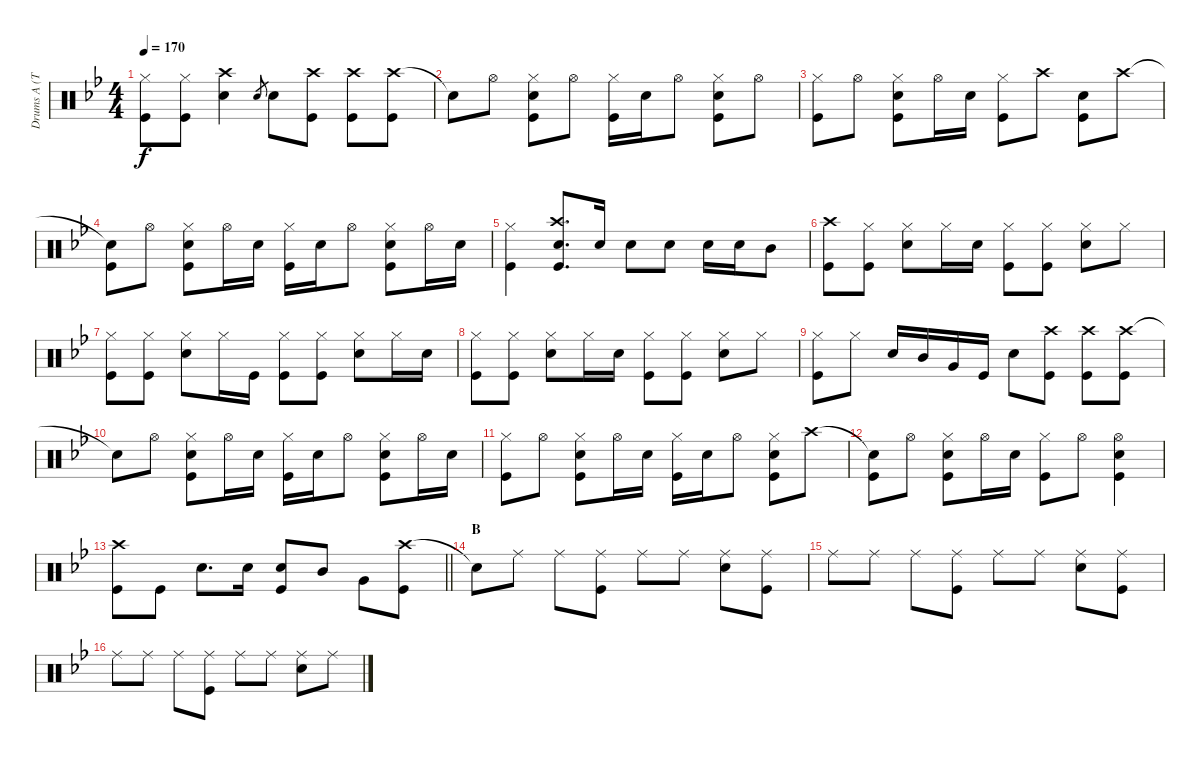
\track ("Drums A (Tainaka Ritsu)" "Drums A (T") {instrument percussion}
\staff {score}
\articulation defaults
\ts (4 4)
\tempo 170
\clef neutral
\ks bb
("Hi-Hat (closed)" "Kick (hit)").8{dy f} ("Hi-Hat (closed)" "Kick (hit)").8 ("Crash high (hit)" "Snare (hit) 2").4 "Snare (hit) 2".8{gr} "Snare (hit) 2".8 ("Crash high (hit)" "Kick (hit)").8 ("Crash high (hit)" "Kick (hit)").8 ("Crash high (hit)" "Kick (hit)").8 |
"Snare (hit)"{t}.8 "Hi-Hat (open)".8 ("Hi-Hat (closed)" "Snare (hit) 2" "Kick (hit)").8 "Hi-Hat (open)".8 ("Hi-Hat (closed)" "Kick (hit)").16 "Snare (hit) 2".16 "Hi-Hat (open)".8 ("Hi-Hat (closed)" "Snare (hit) 2" "Kick (hit)").8 "Hi-Hat (open)".8 |
("Hi-Hat (closed)" "Kick (hit)").8 "Hi-Hat (open)".8 ("Hi-Hat (closed)" "Snare (hit) 2" "Kick (hit)").8 "Hi-Hat (open)".16 "Snare (hit) 2".16 ("Hi-Hat (closed)" "Kick (hit)").8 "Crash high (hit)".8 ("Snare (hit) 2" "Kick (hit)").8 "Crash high (hit)".8 |
("Snare (hit)"{t} "Kick (hit)").8 "Hi-Hat (open)".8 ("Hi-Hat (closed)" "Snare (hit) 2" "Kick (hit)").8 "Hi-Hat (open)".16 "Snare (hit) 2".16 ("Hi-Hat (closed)" "Kick (hit)").16 "Snare (hit) 2".16 "Hi-Hat (open)".8 ("Hi-Hat (closed)" "Snare (hit) 2" "Kick (hit)").8 "Hi-Hat (open)".16 "Snare (hit) 2".16 |
("Hi-Hat (closed)" "Kick (hit)").4 ("Crash high (hit)" "Snare (hit) 2" "Kick (hit)").8{d} "Snare (hit) 2".16 "Snare (hit) 2".8 "Snare (hit) 2".8 "Snare (hit) 2".16 "Snare (hit) 2".16 "Mid Tom (hit)".8 |
("Crash high (hit)" "Kick (hit)").8 ("Hi-Hat (closed)" "Kick (hit)").8 ("Hi-Hat (closed)" "Snare (hit) 2").8 "Hi-Hat (closed)".16 "Snare (hit) 2".16 ("Hi-Hat (closed)" "Kick (hit)").8 ("Hi-Hat (closed)" "Kick (hit)").8 ("Hi-Hat (closed)" "Snare (hit) 2").8 "Hi-Hat (closed)".8 |
("Hi-Hat (closed)" "Kick (hit)").8 ("Hi-Hat (closed)" "Kick (hit)").8 ("Hi-Hat (closed)" "Snare (hit) 2").8 "Hi-Hat (closed)".16 "Kick (hit)".16 ("Hi-Hat (closed)" "Kick (hit)").8 ("Hi-Hat (closed)" "Kick (hit)").8 ("Hi-Hat (closed)" "Snare (hit) 2").8 "Hi-Hat (closed)".16 "Snare (hit) 2".16 |
("Hi-Hat (closed)" "Kick (hit)").8 ("Hi-Hat (closed)" "Kick (hit)").8 ("Hi-Hat (closed)" "Snare (hit) 2").8 "Hi-Hat (closed)".16 "Snare (hit) 2".16 ("Hi-Hat (closed)" "Kick (hit)").8 ("Hi-Hat (closed)" "Kick (hit)").8 ("Hi-Hat (closed)" "Snare (hit) 2").8 "Hi-Hat (closed)".8 |
("Hi-Hat (closed)" "Kick (hit)").8 "Hi-Hat (closed)".8 "Snare (hit) 2".16 "Mid Tom (hit)".16 "Very Low Tom (hit)".16 "Kick (hit)".16 "Snare (hit) 2".8 ("Crash high (hit)" "Kick (hit)").8 ("Crash high (hit)" "Kick (hit)").8 ("Crash high (hit)" "Kick (hit)").8 |
"Snare (hit)"{t}.8 "Hi-Hat (open)".8 ("Hi-Hat (closed)" "Snare (hit) 2" "Kick (hit)").8 "Hi-Hat (open)".16 "Snare (hit) 2".16 ("Hi-Hat (closed)" "Kick (hit)").16 "Snare (hit) 2".16 "Hi-Hat (open)".8 ("Hi-Hat (closed)" "Snare (hit) 2" "Kick (hit)").8 "Hi-Hat (open)".16 "Snare (hit) 2".16 |
("Hi-Hat (closed)" "Kick (hit)").8 "Hi-Hat (open)".8 ("Hi-Hat (closed)" "Snare (hit) 2" "Kick (hit)").8 "Hi-Hat (open)".16 "Snare (hit) 2".16 ("Hi-Hat (closed)" "Kick (hit)").16 "Snare (hit) 2".16 "Hi-Hat (open)".8 ("Hi-Hat (closed)" "Snare (hit) 2" "Kick (hit)").8 "Crash high (hit)".8 |
("Snare (hit)"{t} "Kick (hit)").8 "Hi-Hat (open)".8 ("Hi-Hat (closed)" "Snare (hit) 2" "Kick (hit)").8 "Hi-Hat (open)".16 "Snare (hit) 2".16 ("Hi-Hat (closed)" "Kick (hit)").8 "Hi-Hat (open)".8 ("Hi-Hat (open)" "Snare (hit) 2" "Kick (hit)").4 |
\barLineRight lightlight
("Crash high (hit)" "Kick (hit)").8 "Kick (hit)".8 "Snare (hit) 2".8{d} "Snare (hit) 2".16 ("Snare (hit) 2" "Kick (hit)").8 "Mid Tom (hit)".8 "Very Low Tom (hit)".8 ("Crash high (hit)" "Kick (hit)").8 |
\section ("" "B")
"Snare (hit)"{t}.8 "Ride (middle)".8 "Ride (middle)".8 ("Ride (middle)" "Kick (hit)").8 "Ride (middle)".8 "Ride (middle)".8 ("Ride (middle)" "Snare (hit) 2").8 ("Ride (middle)" "Kick (hit)").8 |
"Ride (middle)".8 "Ride (middle)".8 "Ride (middle)".8 ("Ride (middle)" "Kick (hit)").8 "Ride (middle)".8 "Ride (middle)".8 ("Ride (middle)" "Snare (hit) 2").8 ("Ride (middle)" "Kick (hit)").8 |
"Ride (middle)".8 "Ride (middle)".8 "Ride (middle)".8 ("Ride (middle)" "Kick (hit)").8 "Ride (middle)".8 "Ride (middle)".8 ("Ride (middle)" "Snare (hit) 2").8 "Ride (middle)".8
